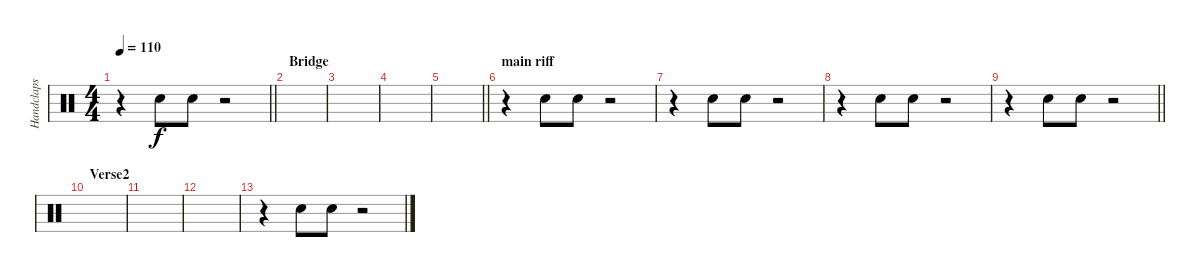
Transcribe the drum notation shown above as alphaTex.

\track ("Handclaps" "Handclaps") {instrument percussion}
\staff {score}
\articulation defaults
\ts (4 4)
\tempo 110
\clef neutral
\barLineRight lightlight
\ks c
r.4{dy f} "Hand Clap (hit)".8 "Hand Clap (hit)".8 r.2 |
\section ("" "Bridge")
|
|
|
\barLineRight lightlight
|
\section ("" "main riff")
r.4 "Hand Clap (hit)".8 "Hand Clap (hit)".8 r.2 |
r.4 "Hand Clap (hit)".8 "Hand Clap (hit)".8 r.2 |
r.4 "Hand Clap (hit)".8 "Hand Clap (hit)".8 r.2 |
\barLineRight lightlight
r.4 "Hand Clap (hit)".8 "Hand Clap (hit)".8 r.2 |
\section ("" "Verse2")
|
|
|
r.4 "Hand Clap (hit)".8 "Hand Clap (hit)".8 r.2
